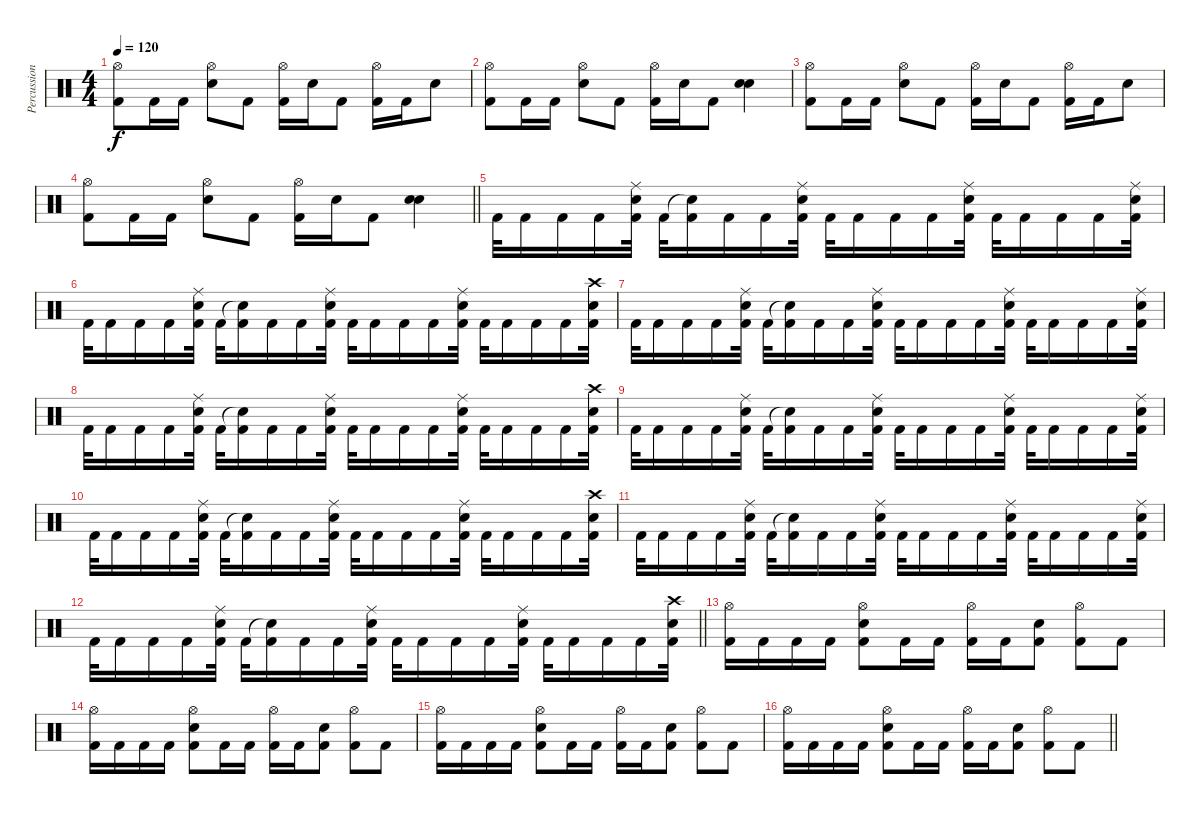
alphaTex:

\track ("Percussion" "Percussion") {instrument percussion}
\staff {score}
\articulation defaults
\ts (4 4)
\tempo 120
\clef neutral
\ks c
("Hi-Hat (open)" "Kick (hit) 2").8{dy f} "Kick (hit) 2".16 "Kick (hit) 2".16 ("Hi-Hat (open)" "Electric Snare (hit)").8 "Kick (hit) 2".8 ("Hi-Hat (open)" "Kick (hit) 2").16 "Electric Snare (hit)".16 "Kick (hit) 2".8 ("Hi-Hat (open)" "Kick (hit) 2").16 "Kick (hit) 2".16 "Electric Snare (hit)".8 |
("Hi-Hat (open)" "Kick (hit) 2").8 "Kick (hit) 2".16 "Kick (hit) 2".16 ("Hi-Hat (open)" "Electric Snare (hit)").8 "Kick (hit) 2".8 ("Hi-Hat (open)" "Kick (hit) 2").16 "Electric Snare (hit)".16 "Kick (hit) 2".8 ("Electric Snare (hit)" "Electric Snare (hit)").4{bd 480} |
("Hi-Hat (open)" "Kick (hit) 2").8 "Kick (hit) 2".16 "Kick (hit) 2".16 ("Hi-Hat (open)" "Electric Snare (hit)").8 "Kick (hit) 2".8 ("Hi-Hat (open)" "Kick (hit) 2").16 "Electric Snare (hit)".16 "Kick (hit) 2".8 ("Hi-Hat (open)" "Kick (hit) 2").16 "Kick (hit) 2".16 "Electric Snare (hit)".8 |
\barLineRight lightlight
("Hi-Hat (open)" "Kick (hit) 2").8 "Kick (hit) 2".16 "Kick (hit) 2".16 ("Hi-Hat (open)" "Electric Snare (hit)").8 "Kick (hit) 2".8 ("Hi-Hat (open)" "Kick (hit) 2").16 "Electric Snare (hit)".16 "Kick (hit) 2".8 ("Electric Snare (hit)" "Electric Snare (hit)").4{bd 480} |
"Kick (hit) 2".32 "Kick (hit) 2".16 "Kick (hit) 2".16 "Kick (hit) 2".16 ("Ride (middle)" "Electric Snare (hit)" "Kick (hit) 2").32 "Kick (hit) 2".32 ("Electric Snare (hit)"{t} "Kick (hit) 2").16 "Kick (hit) 2".16 "Kick (hit) 2".16 ("Ride (middle)" "Electric Snare (hit)" "Kick (hit) 2").32 "Kick (hit) 2".32 "Kick (hit) 2".16 "Kick (hit) 2".16 "Kick (hit) 2".16 ("Ride (middle)" "Electric Snare (hit)" "Kick (hit) 2").32 "Kick (hit) 2".32 "Kick (hit) 2".16 "Kick (hit) 2".16 "Kick (hit) 2".16 ("Ride (middle)" "Electric Snare (hit)" "Kick (hit) 2").32 |
"Kick (hit) 2".32 "Kick (hit) 2".16 "Kick (hit) 2".16 "Kick (hit) 2".16 ("Ride (middle)" "Electric Snare (hit)" "Kick (hit) 2").32 "Kick (hit) 2".32 ("Electric Snare (hit)"{t} "Kick (hit) 2").16 "Kick (hit) 2".16 "Kick (hit) 2".16 ("Ride (middle)" "Electric Snare (hit)" "Kick (hit) 2").32 "Kick (hit) 2".32 "Kick (hit) 2".16 "Kick (hit) 2".16 "Kick (hit) 2".16 ("Ride (middle)" "Electric Snare (hit)" "Kick (hit) 2").32 "Kick (hit) 2".32 "Kick (hit) 2".16 "Kick (hit) 2".16 "Kick (hit) 2".16 ("Crash high (hit)" "Electric Snare (hit)" "Kick (hit) 2").32 |
"Kick (hit) 2".32 "Kick (hit) 2".16 "Kick (hit) 2".16 "Kick (hit) 2".16 ("Ride (middle)" "Electric Snare (hit)" "Kick (hit) 2").32 "Kick (hit) 2".32 ("Electric Snare (hit)"{t} "Kick (hit) 2").16 "Kick (hit) 2".16 "Kick (hit) 2".16 ("Ride (middle)" "Electric Snare (hit)" "Kick (hit) 2").32 "Kick (hit) 2".32 "Kick (hit) 2".16 "Kick (hit) 2".16 "Kick (hit) 2".16 ("Ride (middle)" "Electric Snare (hit)" "Kick (hit) 2").32 "Kick (hit) 2".32 "Kick (hit) 2".16 "Kick (hit) 2".16 "Kick (hit) 2".16 ("Ride (middle)" "Electric Snare (hit)" "Kick (hit) 2").32 |
"Kick (hit) 2".32 "Kick (hit) 2".16 "Kick (hit) 2".16 "Kick (hit) 2".16 ("Ride (middle)" "Electric Snare (hit)" "Kick (hit) 2").32 "Kick (hit) 2".32 ("Electric Snare (hit)"{t} "Kick (hit) 2").16 "Kick (hit) 2".16 "Kick (hit) 2".16 ("Ride (middle)" "Electric Snare (hit)" "Kick (hit) 2").32 "Kick (hit) 2".32 "Kick (hit) 2".16 "Kick (hit) 2".16 "Kick (hit) 2".16 ("Ride (middle)" "Electric Snare (hit)" "Kick (hit) 2").32 "Kick (hit) 2".32 "Kick (hit) 2".16 "Kick (hit) 2".16 "Kick (hit) 2".16 ("Crash high (hit)" "Electric Snare (hit)" "Kick (hit) 2").32 |
"Kick (hit) 2".32 "Kick (hit) 2".16 "Kick (hit) 2".16 "Kick (hit) 2".16 ("Ride (middle)" "Electric Snare (hit)" "Kick (hit) 2").32 "Kick (hit) 2".32 ("Electric Snare (hit)"{t} "Kick (hit) 2").16 "Kick (hit) 2".16 "Kick (hit) 2".16 ("Ride (middle)" "Electric Snare (hit)" "Kick (hit) 2").32 "Kick (hit) 2".32 "Kick (hit) 2".16 "Kick (hit) 2".16 "Kick (hit) 2".16 ("Ride (middle)" "Electric Snare (hit)" "Kick (hit) 2").32 "Kick (hit) 2".32 "Kick (hit) 2".16 "Kick (hit) 2".16 "Kick (hit) 2".16 ("Ride (middle)" "Electric Snare (hit)" "Kick (hit) 2").32 |
"Kick (hit) 2".32 "Kick (hit) 2".16 "Kick (hit) 2".16 "Kick (hit) 2".16 ("Ride (middle)" "Electric Snare (hit)" "Kick (hit) 2").32 "Kick (hit) 2".32 ("Electric Snare (hit)"{t} "Kick (hit) 2").16 "Kick (hit) 2".16 "Kick (hit) 2".16 ("Ride (middle)" "Electric Snare (hit)" "Kick (hit) 2").32 "Kick (hit) 2".32 "Kick (hit) 2".16 "Kick (hit) 2".16 "Kick (hit) 2".16 ("Ride (middle)" "Electric Snare (hit)" "Kick (hit) 2").32 "Kick (hit) 2".32 "Kick (hit) 2".16 "Kick (hit) 2".16 "Kick (hit) 2".16 ("Crash high (hit)" "Electric Snare (hit)" "Kick (hit) 2").32 |
"Kick (hit) 2".32 "Kick (hit) 2".16 "Kick (hit) 2".16 "Kick (hit) 2".16 ("Ride (middle)" "Electric Snare (hit)" "Kick (hit) 2").32 "Kick (hit) 2".32 ("Electric Snare (hit)"{t} "Kick (hit) 2").16 "Kick (hit) 2".16 "Kick (hit) 2".16 ("Ride (middle)" "Electric Snare (hit)" "Kick (hit) 2").32 "Kick (hit) 2".32 "Kick (hit) 2".16 "Kick (hit) 2".16 "Kick (hit) 2".16 ("Ride (middle)" "Electric Snare (hit)" "Kick (hit) 2").32 "Kick (hit) 2".32 "Kick (hit) 2".16 "Kick (hit) 2".16 "Kick (hit) 2".16 ("Ride (middle)" "Electric Snare (hit)" "Kick (hit) 2").32 |
\barLineRight lightlight "Kick (hit) 2".32 "Kick (hit) 2".16 "Kick (hit) 2".16 "Kick (hit) 2".16
("Ride (middle)" "Electric Snare (hit)" "Kick (hit) 2").32 "Kick (hit) 2".32 ("Electric Snare (hit)"{t} "Kick (hit) 2").16 "Kick (hit) 2".16 "Kick (hit) 2".16 ("Ride (middle)" "Electric Snare (hit)" "Kick (hit) 2").32 "Kick (hit) 2".32 "Kick (hit) 2".16 "Kick (hit) 2".16 "Kick (hit) 2".16 ("Ride (middle)" "Electric Snare (hit)" "Kick (hit) 2").32 "Kick (hit) 2".32 "Kick (hit) 2".16 "Kick (hit) 2".16 "Kick (hit) 2".16 ("Crash high (hit)" "Electric Snare (hit)" "Kick (hit) 2").32 |
("Hi-Hat (open)" "Kick (hit) 2").16 "Kick (hit) 2".16 "Kick (hit) 2".16 "Kick (hit) 2".16 ("Hi-Hat (open)" "Electric Snare (hit)" "Kick (hit) 2").8 "Kick (hit) 2".16 "Kick (hit) 2".16 ("Hi-Hat (open)" "Kick (hit) 2").16 "Kick (hit) 2".16 ("Electric Snare (hit)" "Kick (hit) 2").8 ("Hi-Hat (open)" "Kick (hit) 2").8 "Kick (hit) 2".8 |
("Hi-Hat (open)" "Kick (hit) 2").16 "Kick (hit) 2".16 "Kick (hit) 2".16 "Kick (hit) 2".16 ("Hi-Hat (open)" "Electric Snare (hit)" "Kick (hit) 2").8 "Kick (hit) 2".16 "Kick (hit) 2".16 ("Hi-Hat (open)" "Kick (hit) 2").16 "Kick (hit) 2".16 ("Electric Snare (hit)" "Kick (hit) 2").8 ("Hi-Hat (open)" "Kick (hit) 2").8 "Kick (hit) 2".8 |
("Hi-Hat (open)" "Kick (hit) 2").16 "Kick (hit) 2".16 "Kick (hit) 2".16 "Kick (hit) 2".16 ("Hi-Hat (open)" "Electric Snare (hit)" "Kick (hit) 2").8 "Kick (hit) 2".16 "Kick (hit) 2".16 ("Hi-Hat (open)" "Kick (hit) 2").16 "Kick (hit) 2".16 ("Electric Snare (hit)" "Kick (hit) 2").8 ("Hi-Hat (open)" "Kick (hit) 2").8 "Kick (hit) 2".8 |
\barLineRight lightlight
("Hi-Hat (open)" "Kick (hit) 2").16 "Kick (hit) 2".16 "Kick (hit) 2".16 "Kick (hit) 2".16 ("Hi-Hat (open)" "Electric Snare (hit)" "Kick (hit) 2").8 "Kick (hit) 2".16 "Kick (hit) 2".16 ("Hi-Hat (open)" "Kick (hit) 2").16 "Kick (hit) 2".16 ("Electric Snare (hit)" "Kick (hit) 2").8 ("Hi-Hat (open)" "Kick (hit) 2").8 "Kick (hit) 2".8
